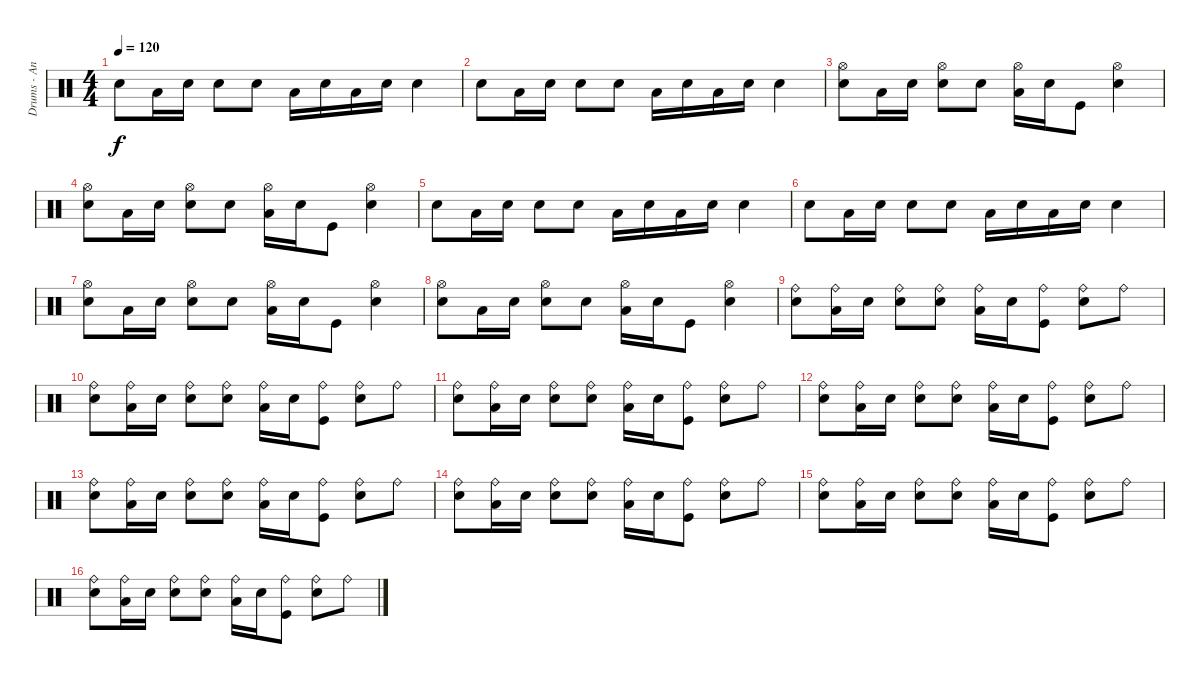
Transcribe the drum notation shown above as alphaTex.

\track ("Drums - Andrew" "Drums - An") {instrument percussion}
\staff {score}
\articulation defaults
\ts (4 4)
\tempo 120
\clef neutral
\ks c "Electric Snare (hit)".8{dy f} "Low Tom (hit)".16 "Electric Snare (hit)".16 "Electric Snare (hit)".8 "Electric Snare (hit)".8 "Low Tom (hit)".16 "Electric Snare (hit)".16 "Low Tom (hit)".16 "Electric Snare (hit)".16 "Electric Snare (hit)".4
|
"Electric Snare (hit)".8 "Low Tom (hit)".16 "Electric Snare (hit)".16 "Electric Snare (hit)".8 "Electric Snare (hit)".8 "Low Tom (hit)".16 "Electric Snare (hit)".16 "Low Tom (hit)".16 "Electric Snare (hit)".16 "Electric Snare (hit)".4 |
("Hi-Hat (open)" "Electric Snare (hit)").8 "Low Tom (hit)".16 "Electric Snare (hit)".16 ("Hi-Hat (open)" "Electric Snare (hit)").8 "Electric Snare (hit)".8 ("Hi-Hat (open)" "Low Tom (hit)").16 "Electric Snare (hit)".16 "Kick (hit)".8 ("Hi-Hat (open)" "Electric Snare (hit)").4 |
("Hi-Hat (open)" "Electric Snare (hit)").8 "Low Tom (hit)".16 "Electric Snare (hit)".16 ("Hi-Hat (open)" "Electric Snare (hit)").8 "Electric Snare (hit)".8 ("Hi-Hat (open)" "Low Tom (hit)").16 "Electric Snare (hit)".16 "Kick (hit)".8 ("Hi-Hat (open)" "Electric Snare (hit)").4 |
"Electric Snare (hit)".8 "Low Tom (hit)".16 "Electric Snare (hit)".16 "Electric Snare (hit)".8 "Electric Snare (hit)".8 "Low Tom (hit)".16 "Electric Snare (hit)".16 "Low Tom (hit)".16 "Electric Snare (hit)".16 "Electric Snare (hit)".4 |
"Electric Snare (hit)".8 "Low Tom (hit)".16 "Electric Snare (hit)".16 "Electric Snare (hit)".8 "Electric Snare (hit)".8 "Low Tom (hit)".16 "Electric Snare (hit)".16 "Low Tom (hit)".16 "Electric Snare (hit)".16 "Electric Snare (hit)".4 |
("Hi-Hat (open)" "Electric Snare (hit)").8 "Low Tom (hit)".16 "Electric Snare (hit)".16 ("Hi-Hat (open)" "Electric Snare (hit)").8 "Electric Snare (hit)".8 ("Hi-Hat (open)" "Low Tom (hit)").16 "Electric Snare (hit)".16 "Kick (hit)".8 ("Hi-Hat (open)" "Electric Snare (hit)").4 |
("Hi-Hat (open)" "Electric Snare (hit)").8 "Low Tom (hit)".16 "Electric Snare (hit)".16 ("Hi-Hat (open)" "Electric Snare (hit)").8 "Electric Snare (hit)".8 ("Hi-Hat (open)" "Low Tom (hit)").16 "Electric Snare (hit)".16 "Kick (hit)".8 ("Hi-Hat (open)" "Electric Snare (hit)").4 |
("Ride (bell)" "Electric Snare (hit)").8 ("Ride (bell)" "Low Tom (hit)").16 "Electric Snare (hit)".16 ("Ride (bell)" "Electric Snare (hit)").8 ("Ride (bell)" "Electric Snare (hit)").8 ("Ride (bell)" "Low Tom (hit)").16 "Electric Snare (hit)".16 ("Ride (bell)" "Kick (hit)").8 ("Ride (bell)" "Electric Snare (hit)").8 "Ride (bell)".8 |
("Ride (bell)" "Electric Snare (hit)").8 ("Ride (bell)" "Low Tom (hit)").16 "Electric Snare (hit)".16 ("Ride (bell)" "Electric Snare (hit)").8 ("Ride (bell)" "Electric Snare (hit)").8 ("Ride (bell)" "Low Tom (hit)").16 "Electric Snare (hit)".16 ("Ride (bell)" "Kick (hit)").8 ("Ride (bell)" "Electric Snare (hit)").8 "Ride (bell)".8 |
("Ride (bell)" "Electric Snare (hit)").8 ("Ride (bell)" "Low Tom (hit)").16 "Electric Snare (hit)".16 ("Ride (bell)" "Electric Snare (hit)").8 ("Ride (bell)" "Electric Snare (hit)").8 ("Ride (bell)" "Low Tom (hit)").16 "Electric Snare (hit)".16 ("Ride (bell)" "Kick (hit)").8 ("Ride (bell)" "Electric Snare (hit)").8 "Ride (bell)".8 |
("Ride (bell)" "Electric Snare (hit)").8 ("Ride (bell)" "Low Tom (hit)").16 "Electric Snare (hit)".16 ("Ride (bell)" "Electric Snare (hit)").8 ("Ride (bell)" "Electric Snare (hit)").8 ("Ride (bell)" "Low Tom (hit)").16 "Electric Snare (hit)".16 ("Ride (bell)" "Kick (hit)").8 ("Ride (bell)" "Electric Snare (hit)").8 "Ride (bell)".8 |
("Ride (bell)" "Electric Snare (hit)").8 ("Ride (bell)" "Low Tom (hit)").16 "Electric Snare (hit)".16 ("Ride (bell)" "Electric Snare (hit)").8 ("Ride (bell)" "Electric Snare (hit)").8 ("Ride (bell)" "Low Tom (hit)").16 "Electric Snare (hit)".16 ("Ride (bell)" "Kick (hit)").8 ("Ride (bell)" "Electric Snare (hit)").8 "Ride (bell)".8 |
("Ride (bell)" "Electric Snare (hit)").8 ("Ride (bell)" "Low Tom (hit)").16 "Electric Snare (hit)".16 ("Ride (bell)" "Electric Snare (hit)").8 ("Ride (bell)" "Electric Snare (hit)").8 ("Ride (bell)" "Low Tom (hit)").16 "Electric Snare (hit)".16 ("Ride (bell)" "Kick (hit)").8 ("Ride (bell)" "Electric Snare (hit)").8 "Ride (bell)".8 |
("Ride (bell)" "Electric Snare (hit)").8 ("Ride (bell)" "Low Tom (hit)").16 "Electric Snare (hit)".16 ("Ride (bell)" "Electric Snare (hit)").8 ("Ride (bell)" "Electric Snare (hit)").8 ("Ride (bell)" "Low Tom (hit)").16 "Electric Snare (hit)".16 ("Ride (bell)" "Kick (hit)").8 ("Ride (bell)" "Electric Snare (hit)").8 "Ride (bell)".8 |
("Ride (bell)" "Electric Snare (hit)").8 ("Ride (bell)" "Low Tom (hit)").16 "Electric Snare (hit)".16 ("Ride (bell)" "Electric Snare (hit)").8 ("Ride (bell)" "Electric Snare (hit)").8 ("Ride (bell)" "Low Tom (hit)").16 "Electric Snare (hit)".16 ("Ride (bell)" "Kick (hit)").8 ("Ride (bell)" "Electric Snare (hit)").8 "Ride (bell)".8
